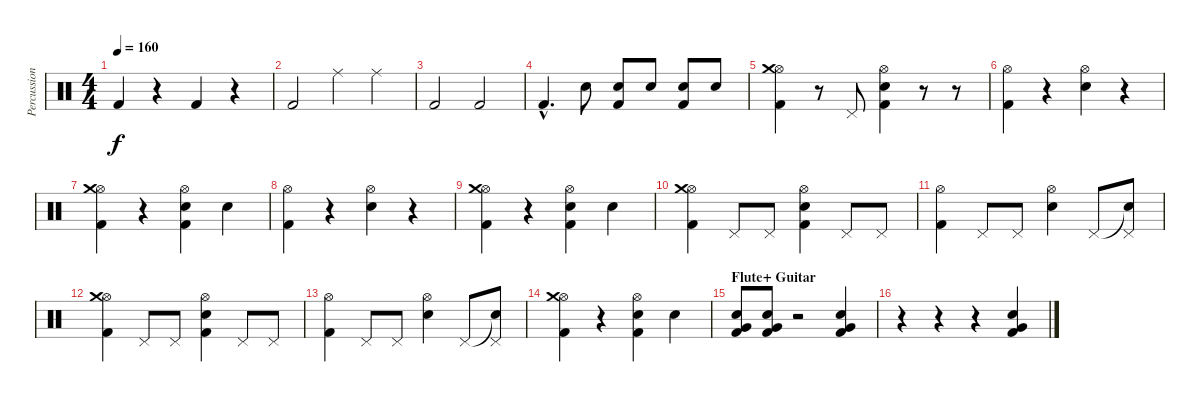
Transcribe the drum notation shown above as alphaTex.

\track ("Percussion" "Percussion") {instrument percussion}
\staff {score}
\articulation defaults
\ts (4 4)
\tempo 160
\clef neutral
\ks c "Kick (hit) 2".4{dy f}
r.4 "Kick (hit) 2".4 r.4 |
"Kick (hit) 2".2 "Ride (middle)".4 "Ride (middle)".4 |
"Kick (hit) 2".2 "Kick (hit) 2".2 |
"Kick (hit) 2"{hac}.4{d} "Electric Snare (hit)".8 ("Electric Snare (hit)" "Kick (hit) 2").8 "Electric Snare (hit)".8 ("Electric Snare (hit)" "Kick (hit) 2").8 "Electric Snare (hit)".8 |
("Hi-Hat (open)" "Crash medium (hit)" "Kick (hit) 2").4 r.8 "Pedal Hi-Hat (hit)".8 ("Hi-Hat (open)" "Electric Snare (hit)" "Kick (hit) 2").4 r.8 r.8 |
("Hi-Hat (open)" "Kick (hit) 2").4 r.4 ("Hi-Hat (open)" "Electric Snare (hit)").4 r.4 |
("Hi-Hat (open)" "Crash medium (hit)" "Kick (hit) 2").4 r.4 ("Hi-Hat (open)" "Electric Snare (hit)" "Kick (hit) 2").4 "Electric Snare (hit)".4 |
("Hi-Hat (open)" "Kick (hit) 2").4 r.4 ("Hi-Hat (open)" "Electric Snare (hit)").4 r.4 |
("Hi-Hat (open)" "Crash medium (hit)" "Kick (hit) 2").4 r.4 ("Hi-Hat (open)" "Electric Snare (hit)" "Kick (hit) 2").4 "Electric Snare (hit)".4 |
("Hi-Hat (open)" "Crash medium (hit)" "Kick (hit) 2").4 "Pedal Hi-Hat (hit)".8 "Pedal Hi-Hat (hit)".8 ("Hi-Hat (open)" "Electric Snare (hit)" "Kick (hit) 2").4 "Pedal Hi-Hat (hit)".8 "Pedal Hi-Hat (hit)".8 |
("Hi-Hat (open)" "Kick (hit) 2").4 "Pedal Hi-Hat (hit)".8 "Pedal Hi-Hat (hit)".8 ("Hi-Hat (open)" "Electric Snare (hit)").4 "Pedal Hi-Hat (hit)".8 ("Snare (hit)"{t} "Pedal Hi-Hat (hit)").8 |
("Hi-Hat (open)" "Crash medium (hit)" "Kick (hit) 2").4 "Pedal Hi-Hat (hit)".8 "Pedal Hi-Hat (hit)".8 ("Hi-Hat (open)" "Electric Snare (hit)" "Kick (hit) 2").4 "Pedal Hi-Hat (hit)".8 "Pedal Hi-Hat (hit)".8 |
("Hi-Hat (open)" "Kick (hit) 2").4 "Pedal Hi-Hat (hit)".8 "Pedal Hi-Hat (hit)".8 ("Hi-Hat (open)" "Electric Snare (hit)").4 "Pedal Hi-Hat (hit)".8 ("Snare (hit)"{t} "Pedal Hi-Hat (hit)").8 |
("Hi-Hat (open)" "Crash medium (hit)" "Kick (hit) 2").4 r.4 ("Hi-Hat (open)" "Electric Snare (hit)" "Kick (hit) 2").4 "Electric Snare (hit)".4 |
\section ("" "Flute+ Guitar")
("Very Low Tom (hit)" "Electric Snare (hit)" "Kick (hit) 2").8 ("Very Low Tom (hit)" "Electric Snare (hit)" "Kick (hit) 2").8 r.2 ("Very Low Tom (hit)" "Electric Snare (hit)" "Kick (hit) 2").4 |
r.4 r.4 r.4 ("Very Low Tom (hit)" "Kick (hit) 2" "Electric Snare (hit)").4
